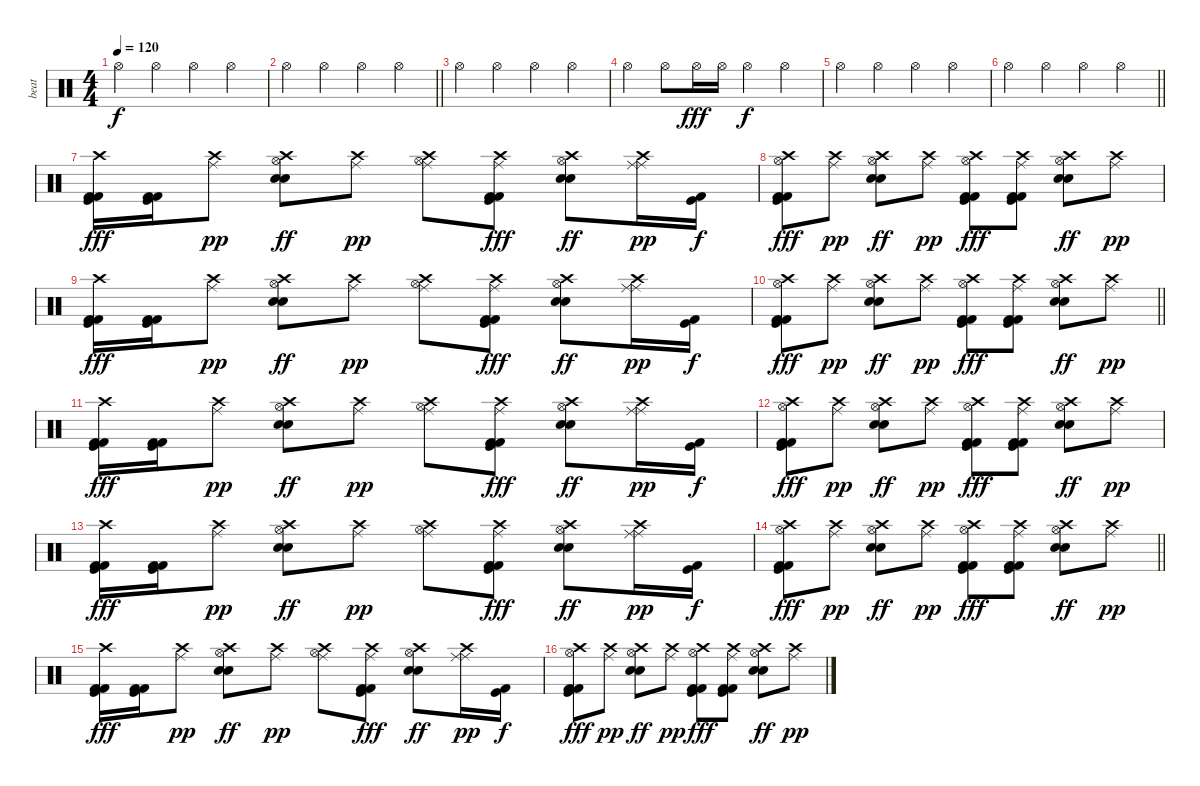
\track ("beat" "beat") {instrument percussion}
\staff {score}
\articulation defaults
\ts (4 4)
\tempo 120
\clef neutral
\ks c "Hi-Hat (open)".4{dy f} "Hi-Hat (open)".4 "Hi-Hat (open)".4 "Hi-Hat (open)".4
|
\barLineRight lightlight "Hi-Hat (open)".4 "Hi-Hat (open)".4 "Hi-Hat (open)".4 "Hi-Hat (open)".4
|
"Hi-Hat (open)".4 "Hi-Hat (open)".4 "Hi-Hat (open)".4 "Hi-Hat (open)".4 |
"Hi-Hat (open)".4 "Hi-Hat (open)".8 "Hi-Hat (open)".16{dy fff} "Hi-Hat (open)".16 "Hi-Hat (open)".4{dy f} "Hi-Hat (open)".4 |
"Hi-Hat (open)".4 "Hi-Hat (open)".4 "Hi-Hat (open)".4 "Hi-Hat (open)".4 |
\barLineRight lightlight "Hi-Hat (open)".4 "Hi-Hat (open)".4 "Hi-Hat (open)".4 "Hi-Hat (open)".4
|
("Crash high (hit)" "Kick (hit) 2" "Kick (hit) 2" "Kick (hit)").16{dy fff} ("Kick (hit) 2" "Kick (hit) 2" "Kick (hit)").16 ("Crash high (hit)" "Ride (middle)").8{dy pp} ("Crash high (hit)" "Hi-Hat (open)" "Snare (hit) 2" "Electric Snare (hit)").8{dy ff} ("Crash high (hit)" "Ride (middle)").8{dy pp} ("Crash high (hit)" "Hi-Hat (open)" "Ride (middle)").8 ("Crash high (hit)" "Ride (middle)" "Kick (hit) 2" "Kick (hit) 2" "Kick (hit)").8{dy fff} ("Crash high (hit)" "Hi-Hat (open)" "Snare (hit) 2" "Electric Snare (hit)").8{dy ff} ("Crash high (hit)" "Ride (middle)" "Ride (middle)").16{dy pp} ("Kick (hit) 2" "Kick (hit)").16{dy f} |
("Crash high (hit)" "Hi-Hat (open)" "Kick (hit) 2" "Kick (hit) 2" "Kick (hit)").8{dy fff} ("Crash high (hit)" "Ride (middle)").8{dy pp} ("Crash high (hit)" "Hi-Hat (open)" "Snare (hit) 2" "Electric Snare (hit)").8{dy ff} ("Crash high (hit)" "Ride (middle)").8{dy pp} ("Crash high (hit)" "Hi-Hat (open)" "Kick (hit) 2" "Kick (hit) 2" "Kick (hit)").8{dy fff} ("Crash high (hit)" "Ride (middle)" "Kick (hit) 2" "Kick (hit) 2" "Kick (hit)").8 ("Crash high (hit)" "Hi-Hat (open)" "Snare (hit) 2" "Electric Snare (hit)").8{dy ff} ("Crash high (hit)" "Ride (middle)").8{dy pp} |
("Crash high (hit)" "Kick (hit) 2" "Kick (hit) 2" "Kick (hit)").16{dy fff} ("Kick (hit) 2" "Kick (hit) 2" "Kick (hit)").16 ("Crash high (hit)" "Ride (middle)").8{dy pp} ("Crash high (hit)" "Hi-Hat (open)" "Snare (hit) 2" "Electric Snare (hit)").8{dy ff} ("Crash high (hit)" "Ride (middle)").8{dy pp} ("Crash high (hit)" "Hi-Hat (open)" "Ride (middle)").8 ("Crash high (hit)" "Ride (middle)" "Kick (hit) 2" "Kick (hit) 2" "Kick (hit)").8{dy fff} ("Crash high (hit)" "Hi-Hat (open)" "Snare (hit) 2" "Electric Snare (hit)").8{dy ff} ("Crash high (hit)" "Ride (middle)" "Ride (middle)").16{dy pp} ("Kick (hit) 2" "Kick (hit)").16{dy f} |
\barLineRight lightlight
("Crash high (hit)" "Hi-Hat (open)" "Kick (hit) 2" "Kick (hit) 2" "Kick (hit)").8{dy fff} ("Crash high (hit)" "Ride (middle)").8{dy pp} ("Crash high (hit)" "Hi-Hat (open)" "Snare (hit) 2" "Electric Snare (hit)").8{dy ff} ("Crash high (hit)" "Ride (middle)").8{dy pp} ("Crash high (hit)" "Hi-Hat (open)" "Kick (hit) 2" "Kick (hit) 2" "Kick (hit)").8{dy fff} ("Crash high (hit)" "Ride (middle)" "Kick (hit) 2" "Kick (hit) 2" "Kick (hit)").8 ("Crash high (hit)" "Hi-Hat (open)" "Snare (hit) 2" "Electric Snare (hit)").8{dy ff} ("Crash high (hit)" "Ride (middle)").8{dy pp} |
("Crash high (hit)" "Kick (hit) 2" "Kick (hit) 2" "Kick (hit)").16{dy fff} ("Kick (hit) 2" "Kick (hit) 2" "Kick (hit)").16 ("Crash high (hit)" "Ride (middle)").8{dy pp} ("Crash high (hit)" "Hi-Hat (open)" "Snare (hit) 2" "Electric Snare (hit)").8{dy ff} ("Crash high (hit)" "Ride (middle)").8{dy pp} ("Crash high (hit)" "Hi-Hat (open)" "Ride (middle)").8 ("Crash high (hit)" "Ride (middle)" "Kick (hit) 2" "Kick (hit) 2" "Kick (hit)").8{dy fff} ("Crash high (hit)" "Hi-Hat (open)" "Snare (hit) 2" "Electric Snare (hit)").8{dy ff} ("Crash high (hit)" "Ride (middle)" "Ride (middle)").16{dy pp} ("Kick (hit) 2" "Kick (hit)").16{dy f} |
("Crash high (hit)" "Hi-Hat (open)" "Kick (hit) 2" "Kick (hit) 2" "Kick (hit)").8{dy fff} ("Crash high (hit)" "Ride (middle)").8{dy pp} ("Crash high (hit)" "Hi-Hat (open)" "Snare (hit) 2" "Electric Snare (hit)").8{dy ff} ("Crash high (hit)" "Ride (middle)").8{dy pp} ("Crash high (hit)" "Hi-Hat (open)" "Kick (hit) 2" "Kick (hit) 2" "Kick (hit)").8{dy fff} ("Crash high (hit)" "Ride (middle)" "Kick (hit) 2" "Kick (hit) 2" "Kick (hit)").8 ("Crash high (hit)" "Hi-Hat (open)" "Snare (hit) 2" "Electric Snare (hit)").8{dy ff} ("Crash high (hit)" "Ride (middle)").8{dy pp} |
("Crash high (hit)" "Kick (hit) 2" "Kick (hit) 2" "Kick (hit)").16{dy fff} ("Kick (hit) 2" "Kick (hit) 2" "Kick (hit)").16 ("Crash high (hit)" "Ride (middle)").8{dy pp} ("Crash high (hit)" "Hi-Hat (open)" "Snare (hit) 2" "Electric Snare (hit)").8{dy ff} ("Crash high (hit)" "Ride (middle)").8{dy pp} ("Crash high (hit)" "Hi-Hat (open)" "Ride (middle)").8 ("Crash high (hit)" "Ride (middle)" "Kick (hit) 2" "Kick (hit) 2" "Kick (hit)").8{dy fff} ("Crash high (hit)" "Hi-Hat (open)" "Snare (hit) 2" "Electric Snare (hit)").8{dy ff} ("Crash high (hit)" "Ride (middle)" "Ride (middle)").16{dy pp} ("Kick (hit) 2" "Kick (hit)").16{dy f} |
\barLineRight lightlight
("Crash high (hit)" "Hi-Hat (open)" "Kick (hit) 2" "Kick (hit) 2" "Kick (hit)").8{dy fff} ("Crash high (hit)" "Ride (middle)").8{dy pp} ("Crash high (hit)" "Hi-Hat (open)" "Snare (hit) 2" "Electric Snare (hit)").8{dy ff} ("Crash high (hit)" "Ride (middle)").8{dy pp} ("Crash high (hit)" "Hi-Hat (open)" "Kick (hit) 2" "Kick (hit) 2" "Kick (hit)").8{dy fff} ("Crash high (hit)" "Ride (middle)" "Kick (hit) 2" "Kick (hit) 2" "Kick (hit)").8 ("Crash high (hit)" "Hi-Hat (open)" "Snare (hit) 2" "Electric Snare (hit)").8{dy ff} ("Crash high (hit)" "Ride (middle)").8{dy pp} |
("Crash high (hit)" "Kick (hit) 2" "Kick (hit) 2" "Kick (hit)").16{dy fff} ("Kick (hit) 2" "Kick (hit) 2" "Kick (hit)").16 ("Crash high (hit)" "Ride (middle)").8{dy pp} ("Crash high (hit)" "Hi-Hat (open)" "Snare (hit) 2" "Electric Snare (hit)").8{dy ff} ("Crash high (hit)" "Ride (middle)").8{dy pp} ("Crash high (hit)" "Hi-Hat (open)" "Ride (middle)").8 ("Crash high (hit)" "Ride (middle)" "Kick (hit) 2" "Kick (hit) 2" "Kick (hit)").8{dy fff} ("Crash high (hit)" "Hi-Hat (open)" "Snare (hit) 2" "Electric Snare (hit)").8{dy ff} ("Crash high (hit)" "Ride (middle)" "Ride (middle)").16{dy pp} ("Kick (hit) 2" "Kick (hit)").16{dy f} |
("Crash high (hit)" "Hi-Hat (open)" "Kick (hit) 2" "Kick (hit) 2" "Kick (hit)").8{dy fff} ("Crash high (hit)" "Ride (middle)").8{dy pp} ("Crash high (hit)" "Hi-Hat (open)" "Snare (hit) 2" "Electric Snare (hit)").8{dy ff} ("Crash high (hit)" "Ride (middle)").8{dy pp} ("Crash high (hit)" "Hi-Hat (open)" "Kick (hit) 2" "Kick (hit) 2" "Kick (hit)").8{dy fff} ("Crash high (hit)" "Ride (middle)" "Kick (hit) 2" "Kick (hit) 2" "Kick (hit)").8 ("Crash high (hit)" "Hi-Hat (open)" "Snare (hit) 2" "Electric Snare (hit)").8{dy ff} ("Crash high (hit)" "Ride (middle)").8{dy pp}
